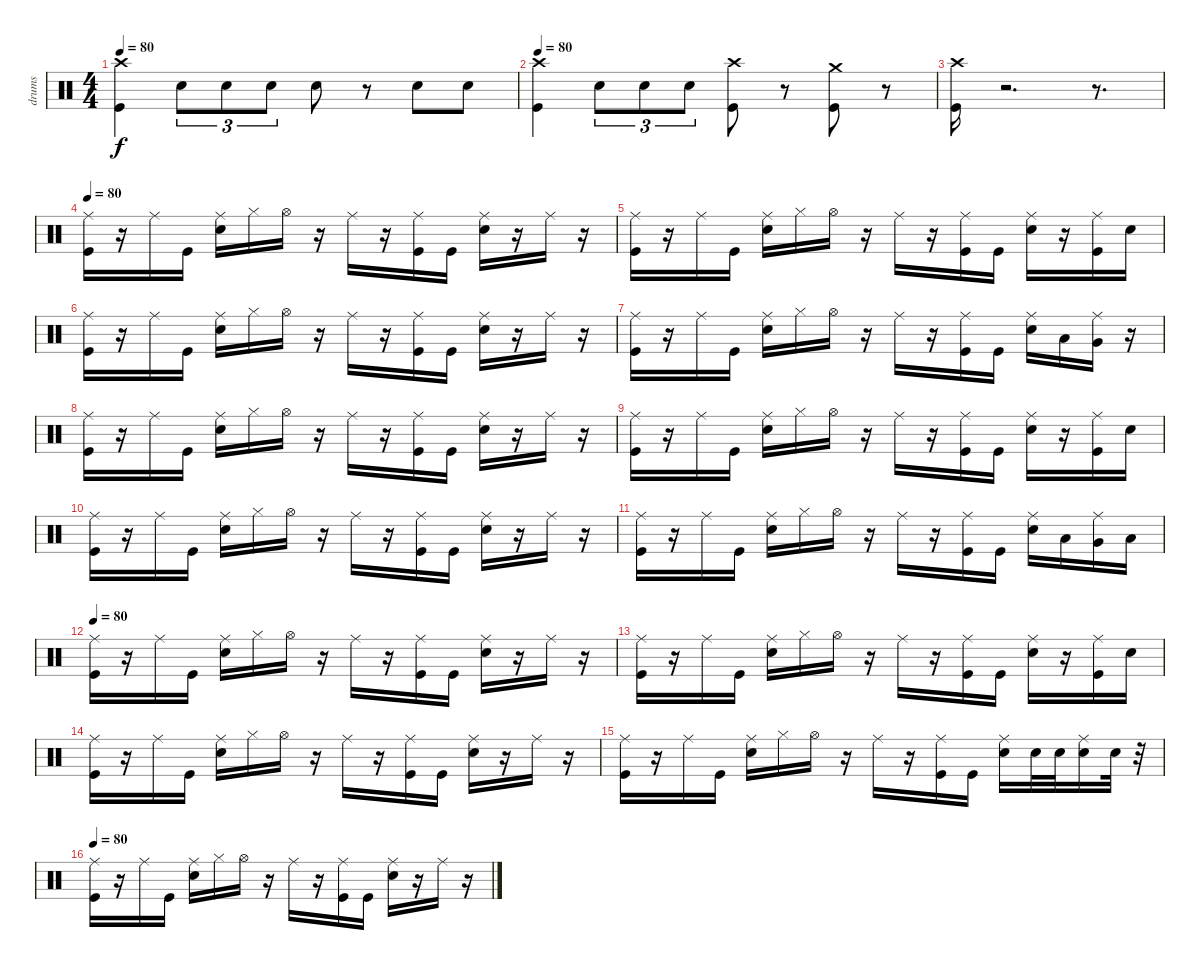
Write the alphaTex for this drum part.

\track ("drums" "drums") {instrument percussion}
\staff {score}
\articulation defaults
\ts (4 4)
\tempo 80
\clef neutral
\ks c
("Crash high (hit)" "Kick (hit)").4{dy f} "Electric Snare (hit)".8{tu (3 2)} "Electric Snare (hit)".8{tu (3 2)} "Electric Snare (hit)".8{tu (3 2)} "Electric Snare (hit)".8 r.8 "Electric Snare (hit)".8 "Electric Snare (hit)".8 |
\tempo 80
("Crash high (hit)" "Kick (hit)").4 "Electric Snare (hit)".8{tu (3 2)} "Electric Snare (hit)".8{tu (3 2)} "Electric Snare (hit)".8{tu (3 2)} ("Kick (hit)" "Crash high (hit)").8 r.8 ("Crash medium (hit)" "Kick (hit)").8 r.8 |
("Crash high (hit)" "Kick (hit)").16 r.2{d} r.8{d} |
\tempo 80
("Ride (middle)" "Kick (hit)").16 r.16 "Ride (middle)".16 "Kick (hit)".16 ("Ride (middle)" "Electric Snare (hit)").16 "Hi-Hat (closed)".16 "Hi-Hat (open)".16 r.16 "Ride (middle)".16 r.16 ("Ride (middle)" "Kick (hit)").16 "Kick (hit)".16 ("Ride (middle)" "Electric Snare (hit)").16 r.16 "Ride (middle)".16 r.16 |
("Ride (middle)" "Kick (hit)").16 r.16 "Ride (middle)".16 "Kick (hit)".16 ("Ride (middle)" "Electric Snare (hit)").16 "Hi-Hat (closed)".16 "Hi-Hat (open)".16 r.16 "Ride (middle)".16 r.16 ("Ride (middle)" "Kick (hit)").16 "Kick (hit)".16 ("Ride (middle)" "Electric Snare (hit)").16 r.16 ("Kick (hit)" "Ride (middle)").16 "Electric Snare (hit)".16 |
("Ride (middle)" "Kick (hit)").16 r.16 "Ride (middle)".16 "Kick (hit)".16 ("Ride (middle)" "Electric Snare (hit)").16 "Hi-Hat (closed)".16 "Hi-Hat (open)".16 r.16 "Ride (middle)".16 r.16 ("Ride (middle)" "Kick (hit)").16 "Kick (hit)".16 ("Ride (middle)" "Electric Snare (hit)").16 r.16 "Ride (middle)".16 r.16 |
("Ride (middle)" "Kick (hit)").16 r.16 "Ride (middle)".16 "Kick (hit)".16 ("Ride (middle)" "Electric Snare (hit)").16 "Hi-Hat (closed)".16 "Hi-Hat (open)".16 r.16 "Ride (middle)".16 r.16 ("Ride (middle)" "Kick (hit)").16 "Kick (hit)".16 ("Ride (middle)" "Electric Snare (hit)").16 "Low Tom (hit)".16 ("Very Low Tom (hit)" "Ride (middle)").16 r.16 |
("Ride (middle)" "Kick (hit)").16 r.16 "Ride (middle)".16 "Kick (hit)".16 ("Ride (middle)" "Electric Snare (hit)").16 "Hi-Hat (closed)".16 "Hi-Hat (open)".16 r.16 "Ride (middle)".16 r.16 ("Ride (middle)" "Kick (hit)").16 "Kick (hit)".16 ("Ride (middle)" "Electric Snare (hit)").16 r.16 "Ride (middle)".16 r.16 |
("Ride (middle)" "Kick (hit)").16 r.16 "Ride (middle)".16 "Kick (hit)".16 ("Ride (middle)" "Electric Snare (hit)").16 "Hi-Hat (closed)".16 "Hi-Hat (open)".16 r.16 "Ride (middle)".16 r.16 ("Ride (middle)" "Kick (hit)").16 "Kick (hit)".16 ("Ride (middle)" "Electric Snare (hit)").16 r.16 ("Kick (hit)" "Ride (middle)").16 "Electric Snare (hit)".16 |
("Ride (middle)" "Kick (hit)").16 r.16 "Ride (middle)".16 "Kick (hit)".16 ("Ride (middle)" "Electric Snare (hit)").16 "Hi-Hat (closed)".16 "Hi-Hat (open)".16 r.16 "Ride (middle)".16 r.16 ("Ride (middle)" "Kick (hit)").16 "Kick (hit)".16 ("Ride (middle)" "Electric Snare (hit)").16 r.16 "Ride (middle)".16 r.16 |
("Ride (middle)" "Kick (hit)").16 r.16 "Ride (middle)".16 "Kick (hit)".16 ("Ride (middle)" "Electric Snare (hit)").16 "Hi-Hat (closed)".16 "Hi-Hat (open)".16 r.16 "Ride (middle)".16 r.16 ("Ride (middle)" "Kick (hit)").16 "Kick (hit)".16 ("Ride (middle)" "Electric Snare (hit)").16 "Low Tom (hit)".16 ("Very Low Tom (hit)" "Ride (middle)").16 "Low Floor Tom (hit)".16 |
\tempo 80
("Ride (middle)" "Kick (hit)").16 r.16 "Ride (middle)".16 "Kick (hit)".16 ("Ride (middle)" "Electric Snare (hit)").16 "Hi-Hat (closed)".16 "Hi-Hat (open)".16 r.16 "Ride (middle)".16 r.16 ("Ride (middle)" "Kick (hit)").16 "Kick (hit)".16 ("Ride (middle)" "Electric Snare (hit)").16 r.16 "Ride (middle)".16 r.16 |
("Ride (middle)" "Kick (hit)").16 r.16 "Ride (middle)".16 "Kick (hit)".16 ("Ride (middle)" "Electric Snare (hit)").16 "Hi-Hat (closed)".16 "Hi-Hat (open)".16 r.16 "Ride (middle)".16 r.16 ("Ride (middle)" "Kick (hit)").16 "Kick (hit)".16 ("Ride (middle)" "Electric Snare (hit)").16 r.16 ("Kick (hit)" "Ride (middle)").16 "Electric Snare (hit)".16 |
("Ride (middle)" "Kick (hit)").16 r.16 "Ride (middle)".16 "Kick (hit)".16 ("Ride (middle)" "Electric Snare (hit)").16 "Hi-Hat (closed)".16 "Hi-Hat (open)".16 r.16 "Ride (middle)".16 r.16 ("Ride (middle)" "Kick (hit)").16 "Kick (hit)".16 ("Ride (middle)" "Electric Snare (hit)").16 r.16 "Ride (middle)".16 r.16 |
("Ride (middle)" "Kick (hit)").16 r.16 "Ride (middle)".16 "Kick (hit)".16 ("Ride (middle)" "Electric Snare (hit)").16 "Hi-Hat (closed)".16 "Hi-Hat (open)".16 r.16 "Ride (middle)".16 r.16 ("Ride (middle)" "Kick (hit)").16 "Kick (hit)".16 ("Ride (middle)" "Electric Snare (hit)").16 "Electric Snare (hit)".32 "Electric Snare (hit)".32 ("Electric Snare (hit)" "Ride (middle)").16 "Electric Snare (hit)".32 r.32 |
\tempo 80
("Ride (middle)" "Kick (hit)").16 r.16 "Ride (middle)".16 "Kick (hit)".16 ("Ride (middle)" "Electric Snare (hit)").16 "Hi-Hat (closed)".16 "Hi-Hat (open)".16 r.16 "Ride (middle)".16 r.16 ("Ride (middle)" "Kick (hit)").16 "Kick (hit)".16 ("Ride (middle)" "Electric Snare (hit)").16 r.16 "Ride (middle)".16 r.16
